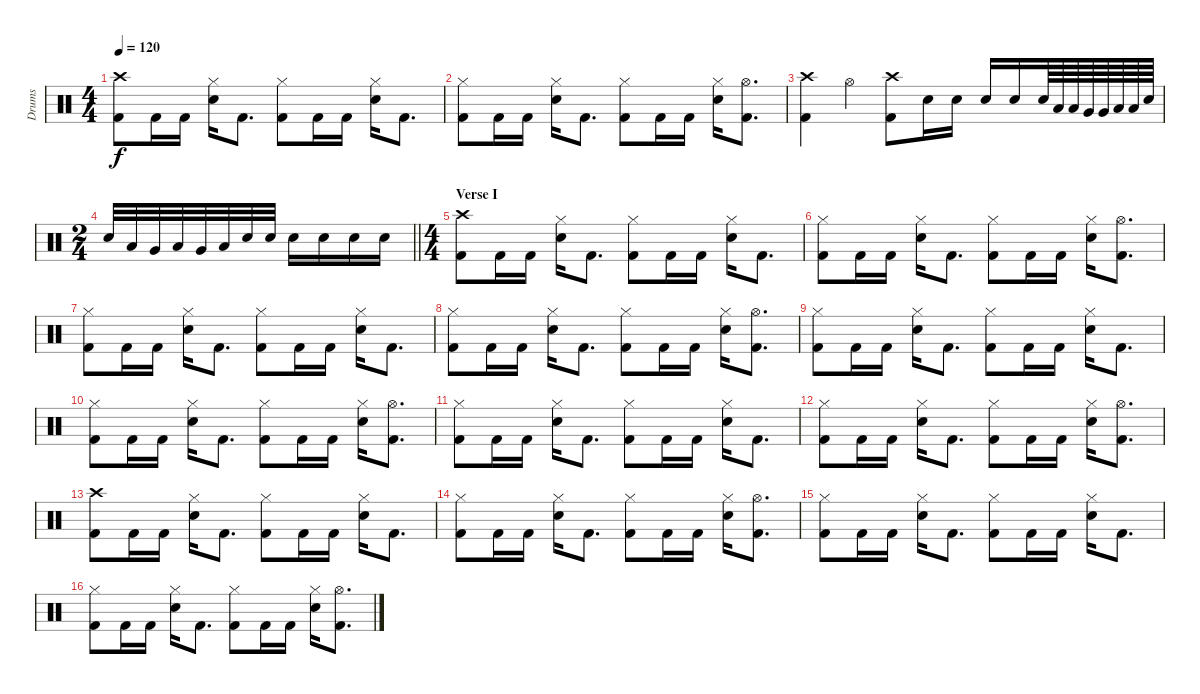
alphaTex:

\track ("Drums" "Drums") {instrument percussion}
\staff {score}
\articulation defaults
\ts (4 4)
\tempo 120
\clef neutral
\ks c
("Crash high (hit)" "Kick (hit) 2").8{dy f} "Kick (hit) 2".16 "Kick (hit) 2".16 ("Hi-Hat (closed)" "Snare (hit) 2").16 "Kick (hit) 2".8{d} ("Hi-Hat (closed)" "Kick (hit) 2").8 "Kick (hit) 2".16 "Kick (hit) 2".16 ("Hi-Hat (closed)" "Snare (hit) 2").16 "Kick (hit) 2".8{d} |
("Hi-Hat (closed)" "Kick (hit) 2").8 "Kick (hit) 2".16 "Kick (hit) 2".16 ("Hi-Hat (closed)" "Snare (hit) 2").16 "Kick (hit) 2".8{d} ("Hi-Hat (closed)" "Kick (hit) 2").8 "Kick (hit) 2".16 "Kick (hit) 2".16 ("Hi-Hat (closed)" "Snare (hit) 2").16 ("Hi-Hat (open)" "Kick (hit) 2").8{d} |
("Crash high (hit)" "Kick (hit) 2").4 "Hi-Hat (open)".4 ("Crash high (hit)" "Kick (hit) 2").8 "Snare (hit) 2".16 "Snare (hit) 2".16 "Snare (hit) 2".16 "Snare (hit) 2".16 "Snare (hit) 2".64 "Low Tom (hit)".64 "Low Tom (hit)".64 "Very Low Tom (hit)".64 "Very Low Tom (hit)".64 "Low Floor Tom (hit)".64 "Low Floor Tom (hit)".64 "Snare (hit) 2".64 |
\ts (2 4)
\barLineRight lightlight "Electric Snare (hit)".32 "Low Tom (hit)".32 "Very Low Tom (hit)".32 "Low Floor Tom (hit)".32 "Very Low Tom (hit)".32 "Low Tom (hit)".32 "Electric Snare (hit)".32 "Electric Snare (hit)".32 "Snare (hit) 2".16 "Snare (hit) 2".16 "Snare (hit) 2".16 "Snare (hit) 2".16
|
\ts (4 4)
\section ("" "Verse I")
("Crash high (hit)" "Kick (hit) 2").8 "Kick (hit) 2".16 "Kick (hit) 2".16 ("Hi-Hat (closed)" "Snare (hit) 2").16 "Kick (hit) 2".8{d} ("Hi-Hat (closed)" "Kick (hit) 2").8 "Kick (hit) 2".16 "Kick (hit) 2".16 ("Hi-Hat (closed)" "Snare (hit) 2").16 "Kick (hit) 2".8{d} |
("Hi-Hat (closed)" "Kick (hit) 2").8 "Kick (hit) 2".16 "Kick (hit) 2".16 ("Hi-Hat (closed)" "Snare (hit) 2").16 "Kick (hit) 2".8{d} ("Hi-Hat (closed)" "Kick (hit) 2").8 "Kick (hit) 2".16 "Kick (hit) 2".16 ("Hi-Hat (closed)" "Snare (hit) 2").16 ("Hi-Hat (open)" "Kick (hit) 2").8{d} |
("Hi-Hat (closed)" "Kick (hit) 2").8 "Kick (hit) 2".16 "Kick (hit) 2".16 ("Hi-Hat (closed)" "Snare (hit) 2").16 "Kick (hit) 2".8{d} ("Hi-Hat (closed)" "Kick (hit) 2").8 "Kick (hit) 2".16 "Kick (hit) 2".16 ("Hi-Hat (closed)" "Snare (hit) 2").16 "Kick (hit) 2".8{d} |
("Hi-Hat (closed)" "Kick (hit) 2").8 "Kick (hit) 2".16 "Kick (hit) 2".16 ("Hi-Hat (closed)" "Snare (hit) 2").16 "Kick (hit) 2".8{d} ("Hi-Hat (closed)" "Kick (hit) 2").8 "Kick (hit) 2".16 "Kick (hit) 2".16 ("Hi-Hat (closed)" "Snare (hit) 2").16 ("Hi-Hat (open)" "Kick (hit) 2").8{d} |
("Hi-Hat (closed)" "Kick (hit) 2").8 "Kick (hit) 2".16 "Kick (hit) 2".16 ("Hi-Hat (closed)" "Snare (hit) 2").16 "Kick (hit) 2".8{d} ("Hi-Hat (closed)" "Kick (hit) 2").8 "Kick (hit) 2".16 "Kick (hit) 2".16 ("Hi-Hat (closed)" "Snare (hit) 2").16 "Kick (hit) 2".8{d} |
("Hi-Hat (closed)" "Kick (hit) 2").8 "Kick (hit) 2".16 "Kick (hit) 2".16 ("Hi-Hat (closed)" "Snare (hit) 2").16 "Kick (hit) 2".8{d} ("Hi-Hat (closed)" "Kick (hit) 2").8 "Kick (hit) 2".16 "Kick (hit) 2".16 ("Hi-Hat (closed)" "Snare (hit) 2").16 ("Hi-Hat (open)" "Kick (hit) 2").8{d} |
("Hi-Hat (closed)" "Kick (hit) 2").8 "Kick (hit) 2".16 "Kick (hit) 2".16 ("Hi-Hat (closed)" "Snare (hit) 2").16 "Kick (hit) 2".8{d} ("Hi-Hat (closed)" "Kick (hit) 2").8 "Kick (hit) 2".16 "Kick (hit) 2".16 ("Hi-Hat (closed)" "Snare (hit) 2").16 "Kick (hit) 2".8{d} |
("Hi-Hat (closed)" "Kick (hit) 2").8 "Kick (hit) 2".16 "Kick (hit) 2".16 ("Hi-Hat (closed)" "Snare (hit) 2").16 "Kick (hit) 2".8{d} ("Hi-Hat (closed)" "Kick (hit) 2").8 "Kick (hit) 2".16 "Kick (hit) 2".16 ("Hi-Hat (closed)" "Snare (hit) 2").16 ("Hi-Hat (open)" "Kick (hit) 2").8{d} |
("Crash high (hit)" "Kick (hit) 2").8 "Kick (hit) 2".16 "Kick (hit) 2".16 ("Hi-Hat (closed)" "Snare (hit) 2").16 "Kick (hit) 2".8{d} ("Hi-Hat (closed)" "Kick (hit) 2").8 "Kick (hit) 2".16 "Kick (hit) 2".16 ("Hi-Hat (closed)" "Snare (hit) 2").16 "Kick (hit) 2".8{d} |
("Hi-Hat (closed)" "Kick (hit) 2").8 "Kick (hit) 2".16 "Kick (hit) 2".16 ("Hi-Hat (closed)" "Snare (hit) 2").16 "Kick (hit) 2".8{d} ("Hi-Hat (closed)" "Kick (hit) 2").8 "Kick (hit) 2".16 "Kick (hit) 2".16 ("Hi-Hat (closed)" "Snare (hit) 2").16 ("Hi-Hat (open)" "Kick (hit) 2").8{d} |
("Hi-Hat (closed)" "Kick (hit) 2").8 "Kick (hit) 2".16 "Kick (hit) 2".16 ("Hi-Hat (closed)" "Snare (hit) 2").16 "Kick (hit) 2".8{d} ("Hi-Hat (closed)" "Kick (hit) 2").8 "Kick (hit) 2".16 "Kick (hit) 2".16 ("Hi-Hat (closed)" "Snare (hit) 2").16 "Kick (hit) 2".8{d} |
("Hi-Hat (closed)" "Kick (hit) 2").8 "Kick (hit) 2".16 "Kick (hit) 2".16 ("Hi-Hat (closed)" "Snare (hit) 2").16 "Kick (hit) 2".8{d} ("Hi-Hat (closed)" "Kick (hit) 2").8 "Kick (hit) 2".16 "Kick (hit) 2".16 ("Hi-Hat (closed)" "Snare (hit) 2").16 ("Hi-Hat (open)" "Kick (hit) 2").8{d}
